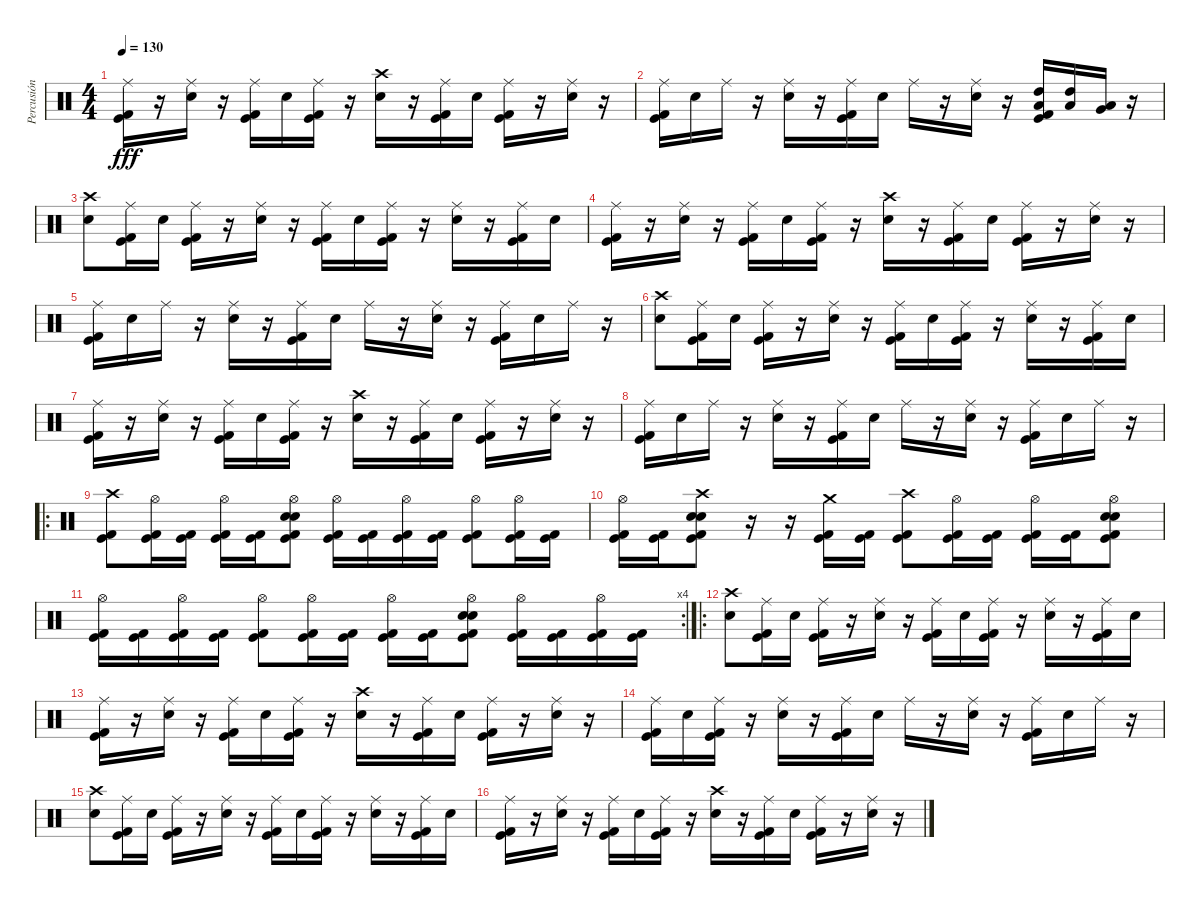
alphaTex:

\track ("Percusión" "Percusión") {instrument percussion}
\staff {score}
\articulation defaults
\ts (4 4)
\tempo 130
\clef neutral
\ks c
("Ride (middle)" "Kick (hit) 2" "Kick (hit)").16{dy fff} r.16 ("Ride (middle)" "Snare (hit) 2").16 r.16 ("Ride (middle)" "Kick (hit) 2" "Kick (hit)").16 "Snare (hit) 2".16 ("Ride (middle)" "Kick (hit)" "Kick (hit) 2").16 r.16 ("Crash high (hit)" "Snare (hit) 2").16 r.16 ("Ride (middle)" "Kick (hit)" "Kick (hit) 2").16 "Snare (hit) 2".16 ("Ride (middle)" "Kick (hit) 2" "Kick (hit)").16 r.16 ("Ride (middle)" "Snare (hit) 2").16 r.16 |
("Ride (middle)" "Kick (hit) 2" "Kick (hit)").16 "Snare (hit) 2".16 "Ride (middle)".16 r.16 ("Ride (middle)" "Snare (hit) 2").16 r.16 ("Ride (middle)" "Kick (hit)" "Kick (hit) 2").16 "Snare (hit) 2".16 "Ride (middle)".16 r.16 ("Ride (middle)" "Snare (hit) 2").16 r.16 ("High Tom (hit)" "Low Tom (hit)" "Kick (hit)" "Kick (hit) 2").16 ("High Tom (hit)" "Low Tom (hit)").16 ("Low Tom (hit)" "Very Low Tom (hit)").16 r.16 |
("Crash high (hit)" "Snare (hit) 2").8 ("Ride (middle)" "Kick (hit)" "Kick (hit) 2").16 "Snare (hit) 2".16 ("Ride (middle)" "Kick (hit)" "Kick (hit) 2").16 r.16 ("Ride (middle)" "Snare (hit) 2").16 r.16 ("Ride (middle)" "Kick (hit)" "Kick (hit) 2").16 "Snare (hit) 2".16 ("Ride (middle)" "Kick (hit) 2" "Kick (hit)").16 r.16 ("Ride (middle)" "Snare (hit) 2").16 r.16 ("Ride (middle)" "Kick (hit)" "Kick (hit) 2").16 "Snare (hit) 2".16 |
("Ride (middle)" "Kick (hit) 2" "Kick (hit)").16 r.16 ("Ride (middle)" "Snare (hit) 2").16 r.16 ("Ride (middle)" "Kick (hit) 2" "Kick (hit)").16 "Snare (hit) 2".16 ("Ride (middle)" "Kick (hit)" "Kick (hit) 2").16 r.16 ("Crash high (hit)" "Snare (hit) 2").16 r.16 ("Ride (middle)" "Kick (hit)" "Kick (hit) 2").16 "Snare (hit) 2".16 ("Ride (middle)" "Kick (hit) 2" "Kick (hit)").16 r.16 ("Ride (middle)" "Snare (hit) 2").16 r.16 |
("Ride (middle)" "Kick (hit) 2" "Kick (hit)").16 "Snare (hit) 2".16 "Ride (middle)".16 r.16 ("Ride (middle)" "Snare (hit) 2").16 r.16 ("Ride (middle)" "Kick (hit)" "Kick (hit) 2").16 "Snare (hit) 2".16 "Ride (middle)".16 r.16 ("Ride (middle)" "Snare (hit) 2").16 r.16 ("Ride (middle)" "Kick (hit)" "Kick (hit) 2").16 "Snare (hit) 2".16 "Ride (middle)".16 r.16 |
("Crash high (hit)" "Snare (hit) 2").8 ("Ride (middle)" "Kick (hit)" "Kick (hit) 2").16 "Snare (hit) 2".16 ("Ride (middle)" "Kick (hit)" "Kick (hit) 2").16 r.16 ("Ride (middle)" "Snare (hit) 2").16 r.16 ("Ride (middle)" "Kick (hit)" "Kick (hit) 2").16 "Snare (hit) 2".16 ("Ride (middle)" "Kick (hit) 2" "Kick (hit)").16 r.16 ("Ride (middle)" "Snare (hit) 2").16 r.16 ("Ride (middle)" "Kick (hit)" "Kick (hit) 2").16 "Snare (hit) 2".16 |
("Ride (middle)" "Kick (hit) 2" "Kick (hit)").16 r.16 ("Ride (middle)" "Snare (hit) 2").16 r.16 ("Ride (middle)" "Kick (hit) 2" "Kick (hit)").16 "Snare (hit) 2".16 ("Ride (middle)" "Kick (hit)" "Kick (hit) 2").16 r.16 ("Crash high (hit)" "Snare (hit) 2").16 r.16 ("Ride (middle)" "Kick (hit)" "Kick (hit) 2").16 "Snare (hit) 2".16 ("Ride (middle)" "Kick (hit) 2" "Kick (hit)").16 r.16 ("Ride (middle)" "Snare (hit) 2").16 r.16 |
("Ride (middle)" "Kick (hit) 2" "Kick (hit)").16 "Snare (hit) 2".16 "Ride (middle)".16 r.16 ("Ride (middle)" "Snare (hit) 2").16 r.16 ("Ride (middle)" "Kick (hit)" "Kick (hit) 2").16 "Snare (hit) 2".16 "Ride (middle)".16 r.16 ("Ride (middle)" "Snare (hit) 2").16 r.16 ("Ride (middle)" "Kick (hit)" "Kick (hit) 2").16 "Snare (hit) 2".16 "Ride (middle)".16 r.16 |
\ro
("Crash high (hit)" "Kick (hit) 2" "Kick (hit)").8 ("Hi-Hat (open)" "Kick (hit) 2" "Kick (hit)").16 ("Kick (hit) 2" "Kick (hit)").16 ("Hi-Hat (open)" "Kick (hit) 2" "Kick (hit)").16 ("Kick (hit) 2" "Kick (hit)").16 ("Hi-Hat (open)" "Snare (hit) 2" "Electric Snare (hit)" "Kick (hit) 2" "Kick (hit)").8 ("Hi-Hat (open)" "Kick (hit) 2" "Kick (hit)").16 ("Kick (hit) 2" "Kick (hit)").16 ("Hi-Hat (open)" "Kick (hit) 2" "Kick (hit)").16 ("Kick (hit) 2" "Kick (hit)").16 ("Hi-Hat (open)" "Kick (hit) 2" "Kick (hit)").8 ("Hi-Hat (open)" "Kick (hit) 2" "Kick (hit)").16 ("Kick (hit) 2" "Kick (hit)").16 |
("Hi-Hat (open)" "Kick (hit) 2" "Kick (hit)").16 ("Kick (hit) 2" "Kick (hit)").16 ("Crash high (hit)" "Snare (hit) 2" "Electric Snare (hit)" "Kick (hit) 2" "Kick (hit)").8 r.16 r.16 ("Crash medium (hit)" "Kick (hit) 2" "Kick (hit)").16 ("Kick (hit) 2" "Kick (hit)").16 ("Crash high (hit)" "Kick (hit) 2" "Kick (hit)").8 ("Hi-Hat (open)" "Kick (hit) 2" "Kick (hit)").16 ("Kick (hit) 2" "Kick (hit)").16 ("Hi-Hat (open)" "Kick (hit) 2" "Kick (hit)").16 ("Kick (hit) 2" "Kick (hit)").16 ("Hi-Hat (open)" "Snare (hit) 2" "Electric Snare (hit)" "Kick (hit) 2" "Kick (hit)").8 |
\rc 4
("Hi-Hat (open)" "Kick (hit) 2" "Kick (hit)").16 ("Kick (hit) 2" "Kick (hit)").16 ("Hi-Hat (open)" "Kick (hit) 2" "Kick (hit)").16 ("Kick (hit) 2" "Kick (hit)").16 ("Hi-Hat (open)" "Kick (hit) 2" "Kick (hit)").8 ("Hi-Hat (open)" "Kick (hit) 2" "Kick (hit)").16 ("Kick (hit) 2" "Kick (hit)").16 ("Hi-Hat (open)" "Kick (hit) 2" "Kick (hit)").16 ("Kick (hit) 2" "Kick (hit)").16 ("Hi-Hat (open)" "Electric Snare (hit)" "Snare (hit) 2" "Kick (hit) 2" "Kick (hit)").8 ("Hi-Hat (open)" "Kick (hit) 2" "Kick (hit)").16 ("Kick (hit) 2" "Kick (hit)").16 ("Hi-Hat (open)" "Kick (hit) 2" "Kick (hit)").16 ("Kick (hit) 2" "Kick (hit)").16 |
\ro
("Crash high (hit)" "Snare (hit) 2").8 ("Ride (middle)" "Kick (hit)" "Kick (hit) 2").16 "Snare (hit) 2".16 ("Ride (middle)" "Kick (hit)" "Kick (hit) 2").16 r.16 ("Ride (middle)" "Snare (hit) 2").16 r.16 ("Ride (middle)" "Kick (hit)" "Kick (hit) 2").16 "Snare (hit) 2".16 ("Ride (middle)" "Kick (hit) 2" "Kick (hit)").16 r.16 ("Ride (middle)" "Snare (hit) 2").16 r.16 ("Ride (middle)" "Kick (hit)" "Kick (hit) 2").16 "Snare (hit) 2".16 |
("Ride (middle)" "Kick (hit) 2" "Kick (hit)").16 r.16 ("Ride (middle)" "Snare (hit) 2").16 r.16 ("Ride (middle)" "Kick (hit) 2" "Kick (hit)").16 "Snare (hit) 2".16 ("Ride (middle)" "Kick (hit)" "Kick (hit) 2").16 r.16 ("Crash high (hit)" "Snare (hit) 2").16 r.16 ("Ride (middle)" "Kick (hit)" "Kick (hit) 2").16 "Snare (hit) 2".16 ("Ride (middle)" "Kick (hit) 2" "Kick (hit)").16 r.16 ("Ride (middle)" "Snare (hit) 2").16 r.16 |
("Ride (middle)" "Kick (hit) 2" "Kick (hit)").16 "Snare (hit) 2".16 ("Ride (middle)" "Kick (hit) 2" "Kick (hit)").16 r.16 ("Ride (middle)" "Snare (hit) 2").16 r.16 ("Ride (middle)" "Kick (hit)" "Kick (hit) 2").16 "Snare (hit) 2".16 "Ride (middle)".16 r.16 ("Ride (middle)" "Snare (hit) 2").16 r.16 ("Ride (middle)" "Kick (hit)" "Kick (hit) 2").16 "Snare (hit) 2".16 "Ride (middle)".16 r.16 |
("Crash high (hit)" "Snare (hit) 2").8 ("Ride (middle)" "Kick (hit)" "Kick (hit) 2").16 "Snare (hit) 2".16 ("Ride (middle)" "Kick (hit)" "Kick (hit) 2").16 r.16 ("Ride (middle)" "Snare (hit) 2").16 r.16 ("Ride (middle)" "Kick (hit)" "Kick (hit) 2").16 "Snare (hit) 2".16 ("Ride (middle)" "Kick (hit) 2" "Kick (hit)").16 r.16 ("Ride (middle)" "Snare (hit) 2").16 r.16 ("Ride (middle)" "Kick (hit)" "Kick (hit) 2").16 "Snare (hit) 2".16 |
("Ride (middle)" "Kick (hit) 2" "Kick (hit)").16 r.16 ("Ride (middle)" "Snare (hit) 2").16 r.16 ("Ride (middle)" "Kick (hit) 2" "Kick (hit)").16 "Snare (hit) 2".16 ("Ride (middle)" "Kick (hit)" "Kick (hit) 2").16 r.16 ("Crash high (hit)" "Snare (hit) 2").16 r.16 ("Ride (middle)" "Kick (hit)" "Kick (hit) 2").16 "Snare (hit) 2".16 ("Ride (middle)" "Kick (hit) 2" "Kick (hit)").16 r.16 ("Ride (middle)" "Snare (hit) 2").16 r.16
